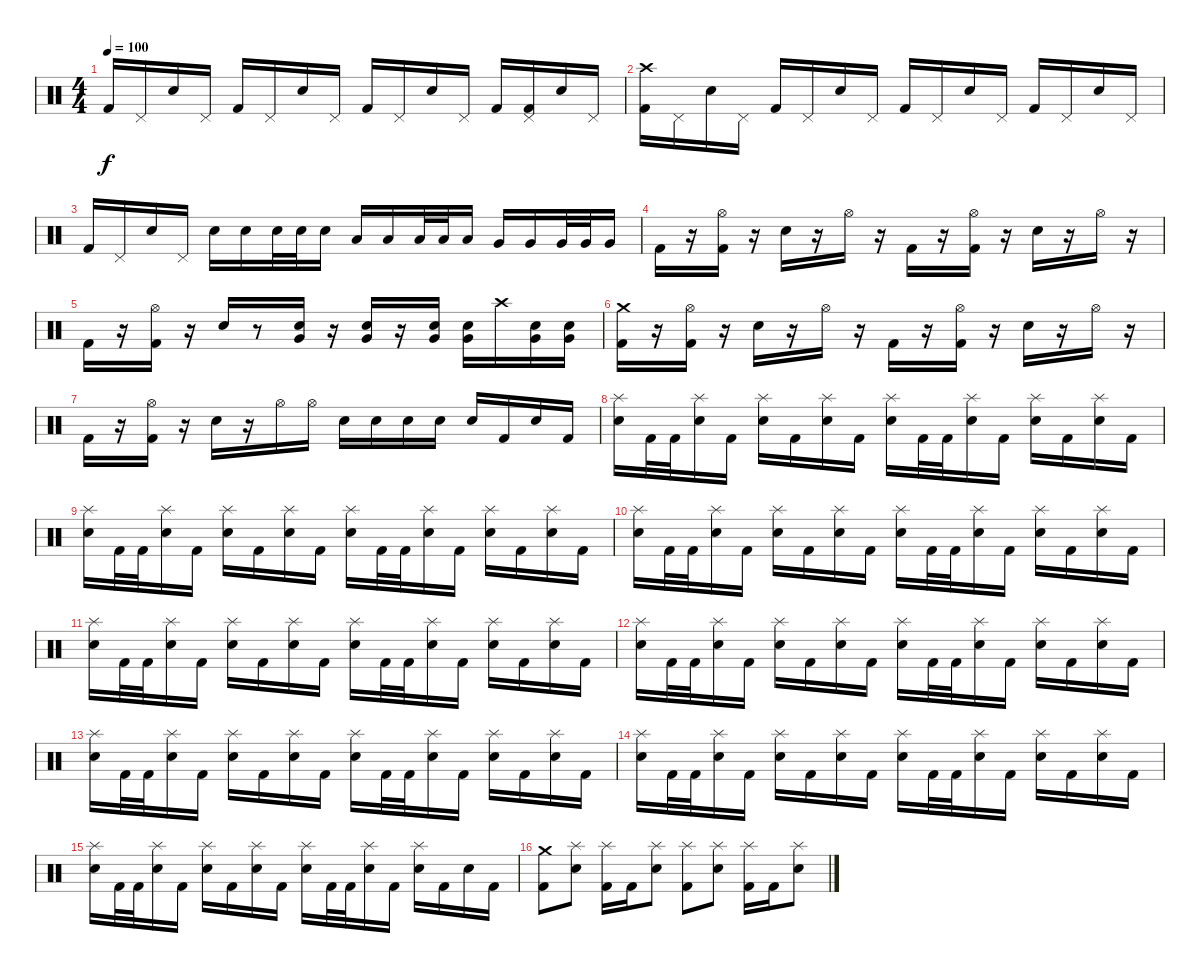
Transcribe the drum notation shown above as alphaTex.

\track "" {instrument percussion}
\staff {score}
\articulation defaults
\ts (4 4)
\tempo 100
\clef neutral
\ks c "Kick (hit) 2".16{dy f} "Pedal Hi-Hat (hit)".16 "Snare (hit) 2".16 "Pedal Hi-Hat (hit)".16 "Kick (hit) 2".16 "Pedal Hi-Hat (hit)".16 "Snare (hit) 2".16 "Pedal Hi-Hat (hit)".16 "Kick (hit) 2".16 "Pedal Hi-Hat (hit)".16 "Snare (hit) 2".16 "Pedal Hi-Hat (hit)".16 "Kick (hit) 2".16
("Pedal Hi-Hat (hit)" "Kick (hit) 2").16 "Snare (hit) 2".16 "Pedal Hi-Hat (hit)".16 |
("Crash high (hit)" "Kick (hit) 2").16 "Pedal Hi-Hat (hit)".16 "Snare (hit) 2".16 "Pedal Hi-Hat (hit)".16 "Kick (hit) 2".16 "Pedal Hi-Hat (hit)".16 "Snare (hit) 2".16 "Pedal Hi-Hat (hit)".16 "Kick (hit) 2".16 "Pedal Hi-Hat (hit)".16 "Snare (hit) 2".16 "Pedal Hi-Hat (hit)".16 "Kick (hit) 2".16 "Pedal Hi-Hat (hit)".16 "Snare (hit) 2".16 "Pedal Hi-Hat (hit)".16 |
"Kick (hit) 2".16 "Pedal Hi-Hat (hit)".16 "Snare (hit) 2".16 "Pedal Hi-Hat (hit)".16 "Snare (hit) 2".16 "Snare (hit) 2".16 "Snare (hit) 2".32 "Snare (hit) 2".32 "Snare (hit) 2".16 "Low Tom (hit)".16 "Low Tom (hit)".16 "Low Tom (hit)".32 "Low Tom (hit)".32 "Low Tom (hit)".16 "Very Low Tom (hit)".16 "Very Low Tom (hit)".16 "Very Low Tom (hit)".32 "Very Low Tom (hit)".32 "Very Low Tom (hit)".16 |
"Kick (hit) 2".16 r.16 ("Hi-Hat (open)" "Kick (hit) 2").16 r.16 "Snare (hit) 2".16 r.16 "Hi-Hat (open)".16 r.16 "Kick (hit) 2".16 r.16 ("Hi-Hat (open)" "Kick (hit) 2").16 r.16 "Snare (hit) 2".16 r.16 "Hi-Hat (open)".16 r.16 |
"Kick (hit) 2".16 r.16 ("Hi-Hat (open)" "Kick (hit) 2").16 r.16 "Snare (hit) 2".16 r.8 ("Snare (hit) 2" "Very Low Tom (hit)").16 r.16 ("Snare (hit) 2" "Very Low Tom (hit)").16 r.16 ("Snare (hit) 2" "Very Low Tom (hit)").16 ("Snare (hit) 2" "Very Low Tom (hit)").16 "Crash high (hit)".16 ("Snare (hit) 2" "Very Low Tom (hit)").16 ("Snare (hit) 2" "Very Low Tom (hit)").16 |
("Crash medium (hit)" "Kick (hit) 2").16 r.16 ("Hi-Hat (open)" "Kick (hit) 2").16 r.16 "Snare (hit) 2".16 r.16 "Hi-Hat (open)".16 r.16 "Kick (hit) 2".16 r.16 ("Hi-Hat (open)" "Kick (hit) 2").16 r.16 "Snare (hit) 2".16 r.16 "Hi-Hat (open)".16 r.16 |
"Kick (hit) 2".16 r.16 ("Hi-Hat (open)" "Kick (hit) 2").16 r.16 "Snare (hit) 2".16 r.16 "Hi-Hat (open)".16 "Hi-Hat (open)".16 "Snare (hit) 2".16 "Snare (hit) 2".16 "Snare (hit) 2".16 "Snare (hit) 2".16 "Snare (hit) 2".16 "Kick (hit) 2".16 "Snare (hit) 2".16 "Kick (hit) 2".16 |
("Splash (hit)" "Snare (hit) 2").16 "Kick (hit) 2".32 "Kick (hit) 2".32 ("Splash (hit)" "Snare (hit) 2").16 "Kick (hit) 2".16 ("Splash (hit)" "Snare (hit) 2").16 "Kick (hit) 2".16 ("Splash (hit)" "Snare (hit) 2").16 "Kick (hit) 2".16 ("Splash (hit)" "Snare (hit) 2").16 "Kick (hit) 2".32 "Kick (hit) 2".32 ("Splash (hit)" "Snare (hit) 2").16 "Kick (hit) 2".16 ("Splash (hit)" "Snare (hit) 2").16 "Kick (hit) 2".16 ("Splash (hit)" "Snare (hit) 2").16 "Kick (hit) 2".16 |
("Splash (hit)" "Snare (hit) 2").16 "Kick (hit) 2".32 "Kick (hit) 2".32 ("Splash (hit)" "Snare (hit) 2").16 "Kick (hit) 2".16 ("Splash (hit)" "Snare (hit) 2").16 "Kick (hit) 2".16 ("Splash (hit)" "Snare (hit) 2").16 "Kick (hit) 2".16 ("Splash (hit)" "Snare (hit) 2").16 "Kick (hit) 2".32 "Kick (hit) 2".32 ("Splash (hit)" "Snare (hit) 2").16 "Kick (hit) 2".16 ("Splash (hit)" "Snare (hit) 2").16 "Kick (hit) 2".16 ("Splash (hit)" "Snare (hit) 2").16 "Kick (hit) 2".16 |
("Splash (hit)" "Snare (hit) 2").16 "Kick (hit) 2".32 "Kick (hit) 2".32 ("Splash (hit)" "Snare (hit) 2").16 "Kick (hit) 2".16 ("Splash (hit)" "Snare (hit) 2").16 "Kick (hit) 2".16 ("Splash (hit)" "Snare (hit) 2").16 "Kick (hit) 2".16 ("Splash (hit)" "Snare (hit) 2").16 "Kick (hit) 2".32 "Kick (hit) 2".32 ("Splash (hit)" "Snare (hit) 2").16 "Kick (hit) 2".16 ("Splash (hit)" "Snare (hit) 2").16 "Kick (hit) 2".16 ("Splash (hit)" "Snare (hit) 2").16 "Kick (hit) 2".16 |
("Splash (hit)" "Snare (hit) 2").16 "Kick (hit) 2".32 "Kick (hit) 2".32 ("Splash (hit)" "Snare (hit) 2").16 "Kick (hit) 2".16 ("Splash (hit)" "Snare (hit) 2").16 "Kick (hit) 2".16 ("Splash (hit)" "Snare (hit) 2").16 "Kick (hit) 2".16 ("Splash (hit)" "Snare (hit) 2").16 "Kick (hit) 2".32 "Kick (hit) 2".32 ("Splash (hit)" "Snare (hit) 2").16 "Kick (hit) 2".16 ("Splash (hit)" "Snare (hit) 2").16 "Kick (hit) 2".16 ("Splash (hit)" "Snare (hit) 2").16 "Kick (hit) 2".16 |
("Splash (hit)" "Snare (hit) 2").16 "Kick (hit) 2".32 "Kick (hit) 2".32 ("Splash (hit)" "Snare (hit) 2").16 "Kick (hit) 2".16 ("Splash (hit)" "Snare (hit) 2").16 "Kick (hit) 2".16 ("Splash (hit)" "Snare (hit) 2").16 "Kick (hit) 2".16 ("Splash (hit)" "Snare (hit) 2").16 "Kick (hit) 2".32 "Kick (hit) 2".32 ("Splash (hit)" "Snare (hit) 2").16 "Kick (hit) 2".16 ("Splash (hit)" "Snare (hit) 2").16 "Kick (hit) 2".16 ("Splash (hit)" "Snare (hit) 2").16 "Kick (hit) 2".16 |
("Splash (hit)" "Snare (hit) 2").16 "Kick (hit) 2".32 "Kick (hit) 2".32 ("Splash (hit)" "Snare (hit) 2").16 "Kick (hit) 2".16 ("Splash (hit)" "Snare (hit) 2").16 "Kick (hit) 2".16 ("Splash (hit)" "Snare (hit) 2").16 "Kick (hit) 2".16 ("Splash (hit)" "Snare (hit) 2").16 "Kick (hit) 2".32 "Kick (hit) 2".32 ("Splash (hit)" "Snare (hit) 2").16 "Kick (hit) 2".16 ("Splash (hit)" "Snare (hit) 2").16 "Kick (hit) 2".16 ("Splash (hit)" "Snare (hit) 2").16 "Kick (hit) 2".16 |
("Splash (hit)" "Snare (hit) 2").16 "Kick (hit) 2".32 "Kick (hit) 2".32 ("Splash (hit)" "Snare (hit) 2").16 "Kick (hit) 2".16 ("Splash (hit)" "Snare (hit) 2").16 "Kick (hit) 2".16 ("Splash (hit)" "Snare (hit) 2").16 "Kick (hit) 2".16 ("Splash (hit)" "Snare (hit) 2").16 "Kick (hit) 2".32 "Kick (hit) 2".32 ("Splash (hit)" "Snare (hit) 2").16 "Kick (hit) 2".16 ("Splash (hit)" "Snare (hit) 2").16 "Kick (hit) 2".16 ("Splash (hit)" "Snare (hit) 2").16 "Kick (hit) 2".16 |
("Splash (hit)" "Snare (hit) 2").16 "Kick (hit) 2".32 "Kick (hit) 2".32 ("Splash (hit)" "Snare (hit) 2").16 "Kick (hit) 2".16 ("Splash (hit)" "Snare (hit) 2").16 "Kick (hit) 2".16 ("Splash (hit)" "Snare (hit) 2").16 "Kick (hit) 2".16 ("Splash (hit)" "Snare (hit) 2").16 "Kick (hit) 2".32 "Kick (hit) 2".32 ("Splash (hit)" "Snare (hit) 2").16 "Kick (hit) 2".16 ("Splash (hit)" "Snare (hit) 2").16 "Kick (hit) 2".16 "Snare (hit) 2".16 "Kick (hit) 2".16 |
("Crash medium (hit)" "Kick (hit) 2").8 ("Splash (hit)" "Snare (hit) 2").8 ("Splash (hit)" "Kick (hit) 2").16 "Kick (hit) 2".16 ("Splash (hit)" "Snare (hit) 2").8 ("Splash (hit)" "Kick (hit) 2").8 ("Splash (hit)" "Snare (hit) 2").8 ("Splash (hit)" "Kick (hit) 2").16 "Kick (hit) 2".16 ("Splash (hit)" "Snare (hit) 2").8
